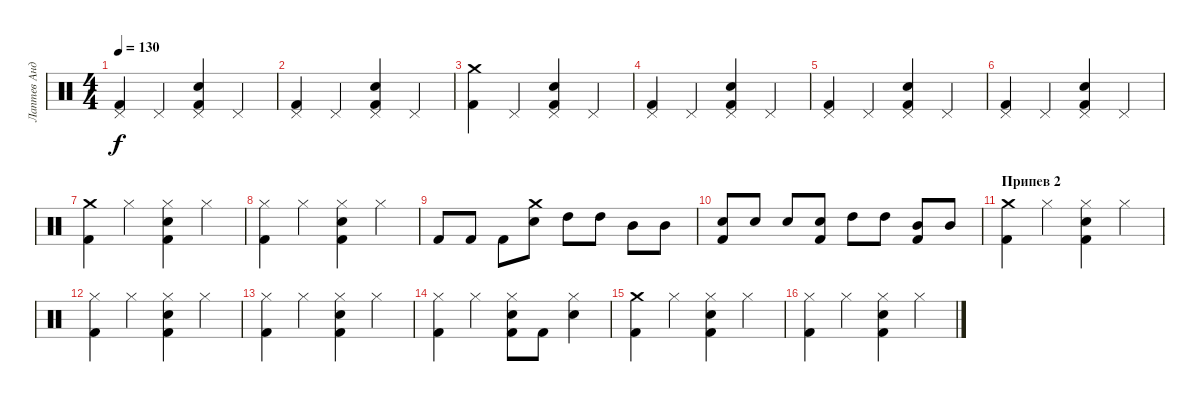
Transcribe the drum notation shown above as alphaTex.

\track ("Лаптев Андрей" "Лаптев Анд") {instrument percussion}
\staff {score}
\articulation defaults
\ts (4 4)
\tempo 130
\clef neutral
\ks c
("Kick (hit) 2" "Pedal Hi-Hat (hit)").4{dy f} "Pedal Hi-Hat (hit)".4 ("Pedal Hi-Hat (hit)" "Electric Snare (hit)" "Kick (hit) 2").4 "Pedal Hi-Hat (hit)".4 |
("Kick (hit) 2" "Pedal Hi-Hat (hit)").4 "Pedal Hi-Hat (hit)".4 ("Pedal Hi-Hat (hit)" "Electric Snare (hit)" "Kick (hit) 2").4 "Pedal Hi-Hat (hit)".4 |
("Crash medium (hit)" "Kick (hit) 2").4 "Pedal Hi-Hat (hit)".4 ("Pedal Hi-Hat (hit)" "Electric Snare (hit)" "Kick (hit) 2").4 "Pedal Hi-Hat (hit)".4 |
("Kick (hit) 2" "Pedal Hi-Hat (hit)").4 "Pedal Hi-Hat (hit)".4 ("Pedal Hi-Hat (hit)" "Electric Snare (hit)" "Kick (hit) 2").4 "Pedal Hi-Hat (hit)".4 |
("Kick (hit) 2" "Pedal Hi-Hat (hit)").4 "Pedal Hi-Hat (hit)".4 ("Pedal Hi-Hat (hit)" "Electric Snare (hit)" "Kick (hit) 2").4 "Pedal Hi-Hat (hit)".4 |
("Kick (hit) 2" "Pedal Hi-Hat (hit)").4 "Pedal Hi-Hat (hit)".4 ("Pedal Hi-Hat (hit)" "Electric Snare (hit)" "Kick (hit) 2").4 "Pedal Hi-Hat (hit)".4 |
("Crash medium (hit)" "Kick (hit) 2").4 "Hi-Hat (closed)".4 ("Kick (hit) 2" "Electric Snare (hit)" "Hi-Hat (closed)").4 "Hi-Hat (closed)".4 |
("Hi-Hat (closed)" "Kick (hit) 2").4 "Hi-Hat (closed)".4 ("Kick (hit) 2" "Electric Snare (hit)" "Hi-Hat (closed)").4 "Hi-Hat (closed)".4 |
"Kick (hit) 2".8 "Kick (hit) 2".8 "Kick (hit) 2".8 ("Electric Snare (hit)" "Crash medium (hit)").8 "High Tom (hit)".8 "High Tom (hit)".8 "Mid Tom (hit)".8 "Mid Tom (hit)".8 |
("Electric Snare (hit)" "Kick (hit) 2").8 "Electric Snare (hit)".8 "Electric Snare (hit)".8 ("Electric Snare (hit)" "Kick (hit) 2").8 "High Tom (hit)".8 "High Tom (hit)".8 ("Mid Tom (hit)" "Kick (hit) 2").8 "Mid Tom (hit)".8 |
\section ("" "Припев 2")
("Crash medium (hit)" "Kick (hit) 2").4 "Hi-Hat (closed)".4 ("Kick (hit) 2" "Electric Snare (hit)" "Hi-Hat (closed)").4 "Hi-Hat (closed)".4 |
("Hi-Hat (closed)" "Kick (hit) 2").4 "Hi-Hat (closed)".4 ("Kick (hit) 2" "Electric Snare (hit)" "Hi-Hat (closed)").4 "Hi-Hat (closed)".4 |
("Hi-Hat (closed)" "Kick (hit) 2").4 "Hi-Hat (closed)".4 ("Kick (hit) 2" "Electric Snare (hit)" "Hi-Hat (closed)").4 "Hi-Hat (closed)".4 |
("Hi-Hat (closed)" "Kick (hit) 2").4 "Hi-Hat (closed)".4 ("Kick (hit) 2" "Electric Snare (hit)" "Hi-Hat (closed)").8 "Kick (hit) 2".8 ("Hi-Hat (closed)" "Electric Snare (hit)").4 |
("Crash medium (hit)" "Kick (hit) 2").4 "Hi-Hat (closed)".4 ("Kick (hit) 2" "Electric Snare (hit)" "Hi-Hat (closed)").4 "Hi-Hat (closed)".4 |
("Hi-Hat (closed)" "Kick (hit) 2").4 "Hi-Hat (closed)".4 ("Kick (hit) 2" "Electric Snare (hit)" "Hi-Hat (closed)").4 "Hi-Hat (closed)".4
